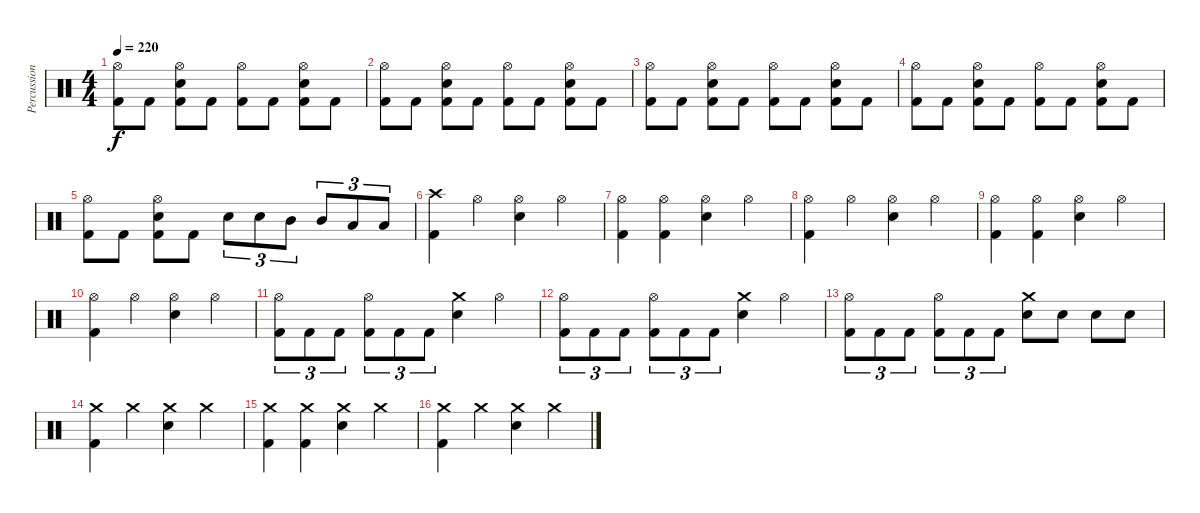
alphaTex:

\track ("Percussion" "Percussion") {instrument percussion}
\staff {score}
\articulation defaults
\ts (4 4)
\tempo 220
\clef neutral
\ks c
("Hi-Hat (open)" "Kick (hit) 2").8{dy f} "Kick (hit) 2".8 ("Snare (hit) 2" "Hi-Hat (open)" "Kick (hit) 2").8 "Kick (hit) 2".8 ("Hi-Hat (open)" "Kick (hit) 2").8 "Kick (hit) 2".8 ("Snare (hit) 2" "Hi-Hat (open)" "Kick (hit) 2").8 "Kick (hit) 2".8 |
("Hi-Hat (open)" "Kick (hit) 2").8 "Kick (hit) 2".8 ("Snare (hit) 2" "Hi-Hat (open)" "Kick (hit) 2").8 "Kick (hit) 2".8 ("Hi-Hat (open)" "Kick (hit) 2").8 "Kick (hit) 2".8 ("Snare (hit) 2" "Hi-Hat (open)" "Kick (hit) 2").8 "Kick (hit) 2".8 |
("Hi-Hat (open)" "Kick (hit) 2").8 "Kick (hit) 2".8 ("Snare (hit) 2" "Hi-Hat (open)" "Kick (hit) 2").8 "Kick (hit) 2".8 ("Hi-Hat (open)" "Kick (hit) 2").8 "Kick (hit) 2".8 ("Snare (hit) 2" "Hi-Hat (open)" "Kick (hit) 2").8 "Kick (hit) 2".8 |
("Hi-Hat (open)" "Kick (hit) 2").8 "Kick (hit) 2".8 ("Snare (hit) 2" "Hi-Hat (open)" "Kick (hit) 2").8 "Kick (hit) 2".8 ("Hi-Hat (open)" "Kick (hit) 2").8 "Kick (hit) 2".8 ("Snare (hit) 2" "Hi-Hat (open)" "Kick (hit) 2").8 "Kick (hit) 2".8 |
("Hi-Hat (open)" "Kick (hit) 2").8 "Kick (hit) 2".8 ("Snare (hit) 2" "Hi-Hat (open)" "Kick (hit) 2").8 "Kick (hit) 2".8 "Snare (hit) 2".8{tu (3 2)} "Snare (hit) 2".8{tu (3 2)} "Mid Tom (hit)".8{tu (3 2)} "Mid Tom (hit)".8{tu (3 2)} "Low Tom (hit)".8{tu (3 2)} "Low Tom (hit)".8{tu (3 2)} |
("Crash high (hit)" "Kick (hit) 2").4 "Hi-Hat (open)".4 ("Hi-Hat (open)" "Snare (hit) 2").4 "Hi-Hat (open)".4 |
("Hi-Hat (open)" "Kick (hit) 2").4 ("Hi-Hat (open)" "Kick (hit) 2").4 ("Hi-Hat (open)" "Snare (hit) 2").4 "Hi-Hat (open)".4 |
("Hi-Hat (open)" "Kick (hit) 2").4 "Hi-Hat (open)".4 ("Hi-Hat (open)" "Snare (hit) 2").4 "Hi-Hat (open)".4 |
("Hi-Hat (open)" "Kick (hit) 2").4 ("Hi-Hat (open)" "Kick (hit) 2").4 ("Hi-Hat (open)" "Snare (hit) 2").4 "Hi-Hat (open)".4 |
("Hi-Hat (open)" "Kick (hit) 2").4 "Hi-Hat (open)".4 ("Hi-Hat (open)" "Snare (hit) 2").4 "Hi-Hat (open)".4 |
("Hi-Hat (open)" "Kick (hit) 2").8{tu (3 2)} "Kick (hit) 2".8{tu (3 2)} "Kick (hit) 2".8{tu (3 2)} ("Hi-Hat (open)" "Kick (hit) 2").8{tu (3 2)} "Kick (hit) 2".8{tu (3 2)} "Kick (hit) 2".8{tu (3 2)} ("Crash medium (hit)" "Snare (hit) 2").4 "Hi-Hat (open)".4 |
("Hi-Hat (open)" "Kick (hit) 2").8{tu (3 2)} "Kick (hit) 2".8{tu (3 2)} "Kick (hit) 2".8{tu (3 2)} ("Hi-Hat (open)" "Kick (hit) 2").8{tu (3 2)} "Kick (hit) 2".8{tu (3 2)} "Kick (hit) 2".8{tu (3 2)} ("Crash medium (hit)" "Snare (hit) 2").4 "Hi-Hat (open)".4 |
("Hi-Hat (open)" "Kick (hit) 2").8{tu (3 2)} "Kick (hit) 2".8{tu (3 2)} "Kick (hit) 2".8{tu (3 2)} ("Hi-Hat (open)" "Kick (hit) 2").8{tu (3 2)} "Kick (hit) 2".8{tu (3 2)} "Kick (hit) 2".8{tu (3 2)} ("Crash medium (hit)" "Snare (hit) 2").8 "Snare (hit) 2".8 "Snare (hit) 2".8 "Snare (hit) 2".8 |
("Crash medium (hit)" "Kick (hit) 2").4 "Crash medium (hit)".4 ("Crash medium (hit)" "Snare (hit) 2").4 "Crash medium (hit)".4 |
("Crash medium (hit)" "Kick (hit) 2").4 ("Crash medium (hit)" "Kick (hit) 2").4 ("Crash medium (hit)" "Snare (hit) 2").4 "Crash medium (hit)".4 |
("Crash medium (hit)" "Kick (hit) 2").4 "Crash medium (hit)".4 ("Crash medium (hit)" "Snare (hit) 2").4 "Crash medium (hit)".4
